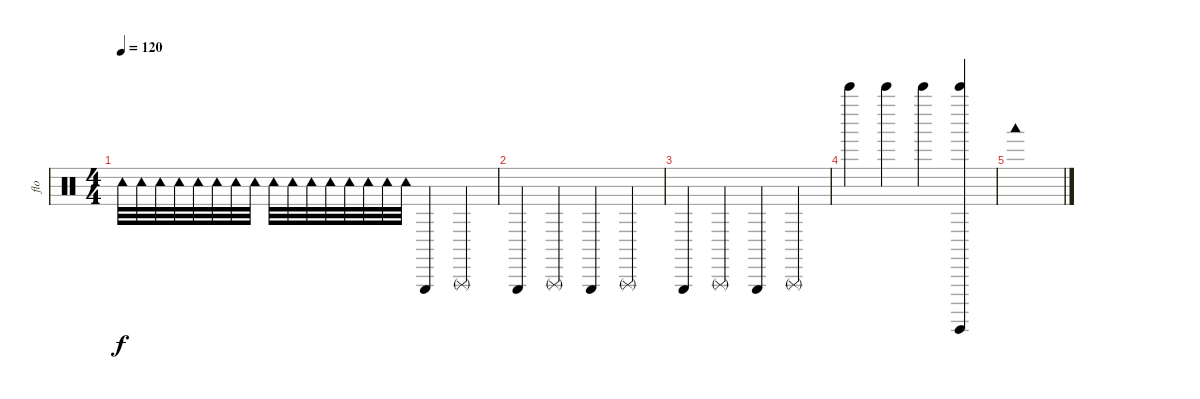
\track ("flo" "flo") {instrument percussion}
\staff {score}
\articulation defaults
\ts (4 4)
\tempo 120
\clef neutral
\ks c "Tambourine (hit)".32{dy f} "Tambourine (hit)".32 "Tambourine (hit)".32 "Tambourine (hit)".32 "Tambourine (hit)".32 "Tambourine (hit)".32 "Tambourine (hit)".32 "Tambourine (hit)".32 "Tambourine (hit)".32 "Tambourine (hit)".32 "Tambourine (hit)".32 "Tambourine (hit)".32 "Tambourine (hit)".32 "Tambourine (hit)".32 "Tambourine (hit)".32 "Tambourine (hit)".32 "Triangle (hit)".4 "Triangle (rnute)".4
|
"Triangle (hit)".4 "Triangle (rnute)".4 "Triangle (hit)".4 "Triangle (rnute)".4 |
"Triangle (hit)".4 "Triangle (rnute)".4 "Triangle (hit)".4 "Triangle (rnute)".4 |
"Bell Tree (hit)".4 "Bell Tree (hit)".4 "Bell Tree (hit)".4 ("Bell Tree (hit)" "Surdo (hit)").4 |
"Woodblock low (hit)".1
